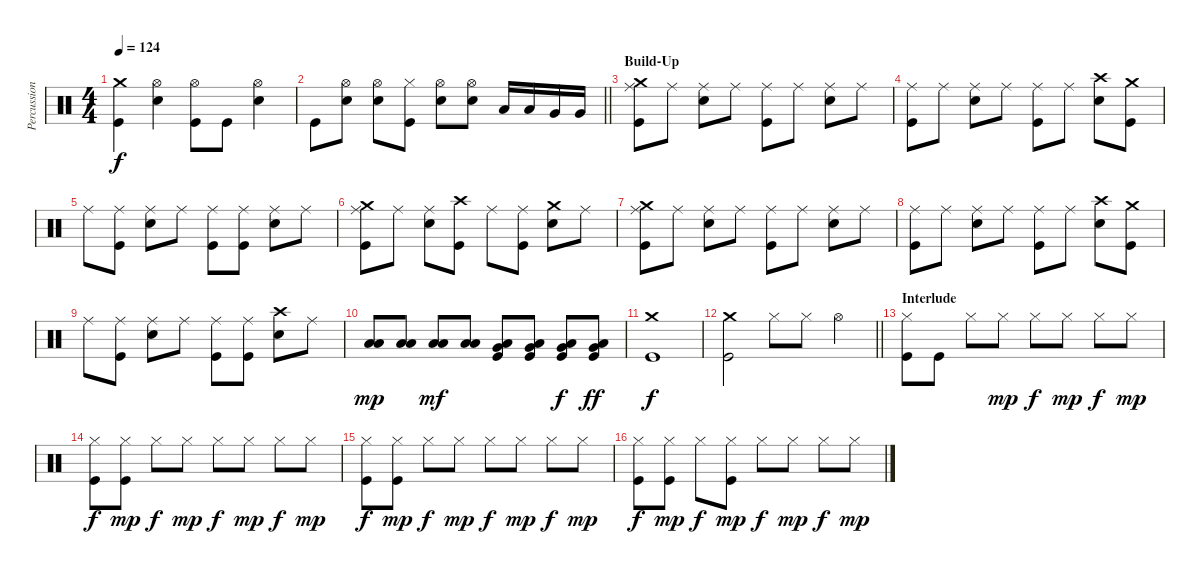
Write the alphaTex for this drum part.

\track ("Percussion" "Percussion") {instrument percussion}
\staff {score}
\articulation defaults
\ts (4 4)
\tempo 124
\clef neutral
\ks c
("Crash medium (hit)" "Kick (hit)").4{dy f} ("Hi-Hat (open)" "Snare (hit) 2").4 ("Hi-Hat (open)" "Kick (hit)").8 "Kick (hit)".8 ("Hi-Hat (open)" "Snare (hit) 2").4 |
\barLineRight lightlight "Kick (hit)".8
("Hi-Hat (open)" "Snare (hit) 2").8 ("Hi-Hat (open)" "Snare (hit) 2").8 ("Hi-Hat (closed)" "Kick (hit)").8 ("Hi-Hat (open)" "Snare (hit) 2").8 ("Hi-Hat (open)" "Snare (hit) 2").8 "Low Tom (hit)".16 "Low Tom (hit)".16 "Very Low Tom (hit)".16 "Very Low Tom (hit)".16 |
\section ("" "Build-Up")
("Crash medium (hit)" "Ride (middle)" "Kick (hit)").8 "Ride (middle)".8 ("Ride (middle)" "Snare (hit) 2").8 "Ride (middle)".8 ("Ride (middle)" "Kick (hit)").8 "Ride (middle)".8 ("Ride (middle)" "Snare (hit) 2").8 "Ride (middle)".8 |
("Ride (middle)" "Kick (hit)").8 "Ride (middle)".8 ("Ride (middle)" "Snare (hit) 2").8 "Ride (middle)".8 ("Ride (middle)" "Kick (hit)").8 "Ride (middle)".8 ("Crash high (hit)" "Snare (hit) 2").8 ("Crash medium (hit)" "Kick (hit)").8 |
"Ride (middle)".8 ("Ride (middle)" "Kick (hit)").8 ("Ride (middle)" "Snare (hit) 2").8 "Ride (middle)".8 ("Ride (middle)" "Kick (hit)").8 ("Ride (middle)" "Kick (hit)").8 ("Ride (middle)" "Snare (hit) 2").8 "Ride (middle)".8 |
("Crash medium (hit)" "Ride (middle)" "Kick (hit)").8 "Ride (middle)".8 ("Ride (middle)" "Snare (hit) 2").8 ("Crash high (hit)" "Kick (hit)").8 "Ride (middle)".8 ("Ride (middle)" "Kick (hit)").8 ("Crash medium (hit)" "Snare (hit) 2").8 "Ride (middle)".8 |
("Crash medium (hit)" "Ride (middle)" "Kick (hit)").8 "Ride (middle)".8 ("Ride (middle)" "Snare (hit) 2").8 "Ride (middle)".8 ("Ride (middle)" "Kick (hit)").8 "Ride (middle)".8 ("Ride (middle)" "Snare (hit) 2").8 "Ride (middle)".8 |
("Ride (middle)" "Kick (hit)").8 "Ride (middle)".8 ("Ride (middle)" "Snare (hit) 2").8 "Ride (middle)".8 ("Ride (middle)" "Kick (hit)").8 "Ride (middle)".8 ("Crash high (hit)" "Snare (hit) 2").8 ("Crash medium (hit)" "Kick (hit)").8 |
"Ride (middle)".8 ("Ride (middle)" "Kick (hit)").8 ("Ride (middle)" "Snare (hit) 2").8 "Ride (middle)".8 ("Ride (middle)" "Kick (hit)").8 ("Ride (middle)" "Kick (hit)").8 ("Crash high (hit)" "Snare (hit) 2").8 "Ride (middle)".8 |
("Low Tom (hit)" "Low Floor Tom (hit)").8{dy mp} ("Low Tom (hit)" "Low Floor Tom (hit)").8 ("Low Tom (hit)" "Low Floor Tom (hit)").8{dy mf} ("Low Tom (hit)" "Low Floor Tom (hit)").8 ("Very Low Tom (hit)" "Low Floor Tom (hit)" "Kick (hit)").8 ("Very Low Tom (hit)" "Low Floor Tom (hit)" "Kick (hit)").8 ("Very Low Tom (hit)" "Low Floor Tom (hit)" "Kick (hit)").8{dy f} ("Very Low Tom (hit)" "Low Floor Tom (hit)" "Kick (hit)").8{dy ff} |
("Crash medium (hit)" "Kick (hit)").1{dy f} |
\barLineRight lightlight
("Crash medium (hit)" "Kick (hit)").2 "Hi-Hat (closed)".8 "Hi-Hat (closed)".8 "Hi-Hat (open)".4 |
\section ("" "Interlude")
("Hi-Hat (closed)" "Kick (hit)").8 "Kick (hit)".8 "Hi-Hat (closed)".8 "Hi-Hat (closed)".8{dy mp} "Hi-Hat (closed)".8{dy f} "Hi-Hat (closed)".8{dy mp} "Hi-Hat (closed)".8{dy f} "Hi-Hat (closed)".8{dy mp} |
("Hi-Hat (closed)" "Kick (hit)").8{dy f} ("Hi-Hat (closed)" "Kick (hit)").8{dy mp} "Hi-Hat (closed)".8{dy f} "Hi-Hat (closed)".8{dy mp} "Hi-Hat (closed)".8{dy f} "Hi-Hat (closed)".8{dy mp} "Hi-Hat (closed)".8{dy f} "Hi-Hat (closed)".8{dy mp} |
("Hi-Hat (closed)" "Kick (hit)").8{dy f} ("Hi-Hat (closed)" "Kick (hit)").8{dy mp} "Hi-Hat (closed)".8{dy f} "Hi-Hat (closed)".8{dy mp} "Hi-Hat (closed)".8{dy f} "Hi-Hat (closed)".8{dy mp} "Hi-Hat (closed)".8{dy f} "Hi-Hat (closed)".8{dy mp} |
("Hi-Hat (closed)" "Kick (hit)").8{dy f} ("Hi-Hat (closed)" "Kick (hit)").8{dy mp} "Hi-Hat (closed)".8{dy f} ("Hi-Hat (closed)" "Kick (hit)").8{dy mp} "Hi-Hat (closed)".8{dy f} "Hi-Hat (closed)".8{dy mp} "Hi-Hat (closed)".8{dy f} "Hi-Hat (closed)".8{dy mp}
